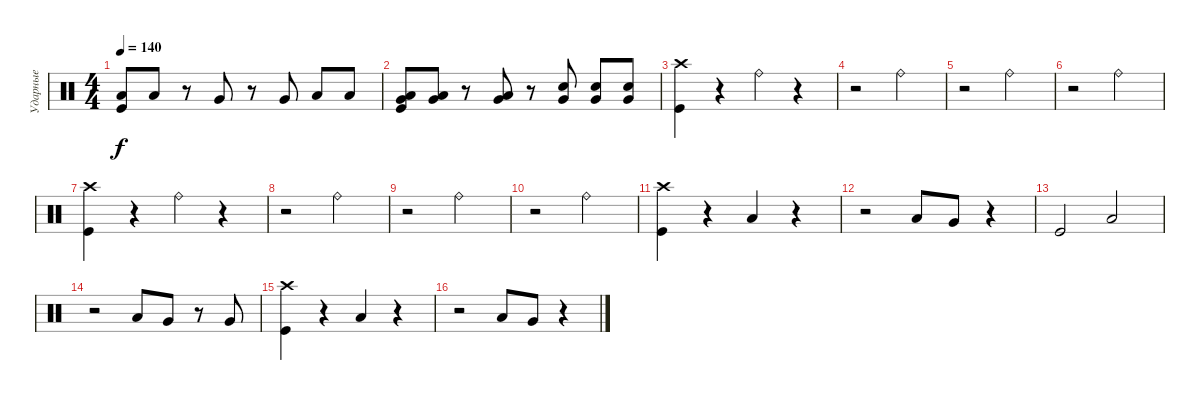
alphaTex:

\track ("Ударные" "Ударные") {instrument percussion}
\staff {score}
\articulation defaults
\ts (4 4)
\tempo 140
\clef neutral
\ks c
("Low Tom (hit)" "Kick (hit)").8{dy f} "Low Tom (hit)".8 r.8 "Very Low Tom (hit)".8 r.8 "Very Low Tom (hit)".8 "Low Tom (hit)".8 "Low Tom (hit)".8 |
("Very Low Tom (hit)" "Low Tom (hit)" "Kick (hit)").8 ("Very Low Tom (hit)" "Low Tom (hit)").8 r.8 ("Very Low Tom (hit)" "Low Tom (hit)").8 r.8 ("Electric Snare (hit)" "Very Low Tom (hit)").8 ("Electric Snare (hit)" "Very Low Tom (hit)").8 ("Electric Snare (hit)" "Very Low Tom (hit)").8 |
("Crash high (hit)" "Kick (hit)").4 r.4 "Ride (bell)".4 r.4 |
r.2 "Ride (bell)".2 |
r.2 "Ride (bell)".2 |
r.2 "Ride (bell)".2 |
("Crash high (hit)" "Kick (hit)").4 r.4 "Ride (bell)".4 r.4 |
r.2 "Ride (bell)".2 |
r.2 "Ride (bell)".2 |
r.2 "Ride (bell)".2 |
("Crash high (hit)" "Kick (hit)").4 r.4 "Low Tom (hit)".4 r.4 |
r.2 "Low Tom (hit)".8 "Very Low Tom (hit)".8 r.4 |
"Kick (hit)".2 "Low Tom (hit)".2 |
r.2 "Low Tom (hit)".8 "Very Low Tom (hit)".8 r.8 "Very Low Tom (hit)".8 |
("Crash high (hit)" "Kick (hit)").4 r.4 "Low Tom (hit)".4 r.4 |
r.2 "Low Tom (hit)".8 "Very Low Tom (hit)".8 r.4
